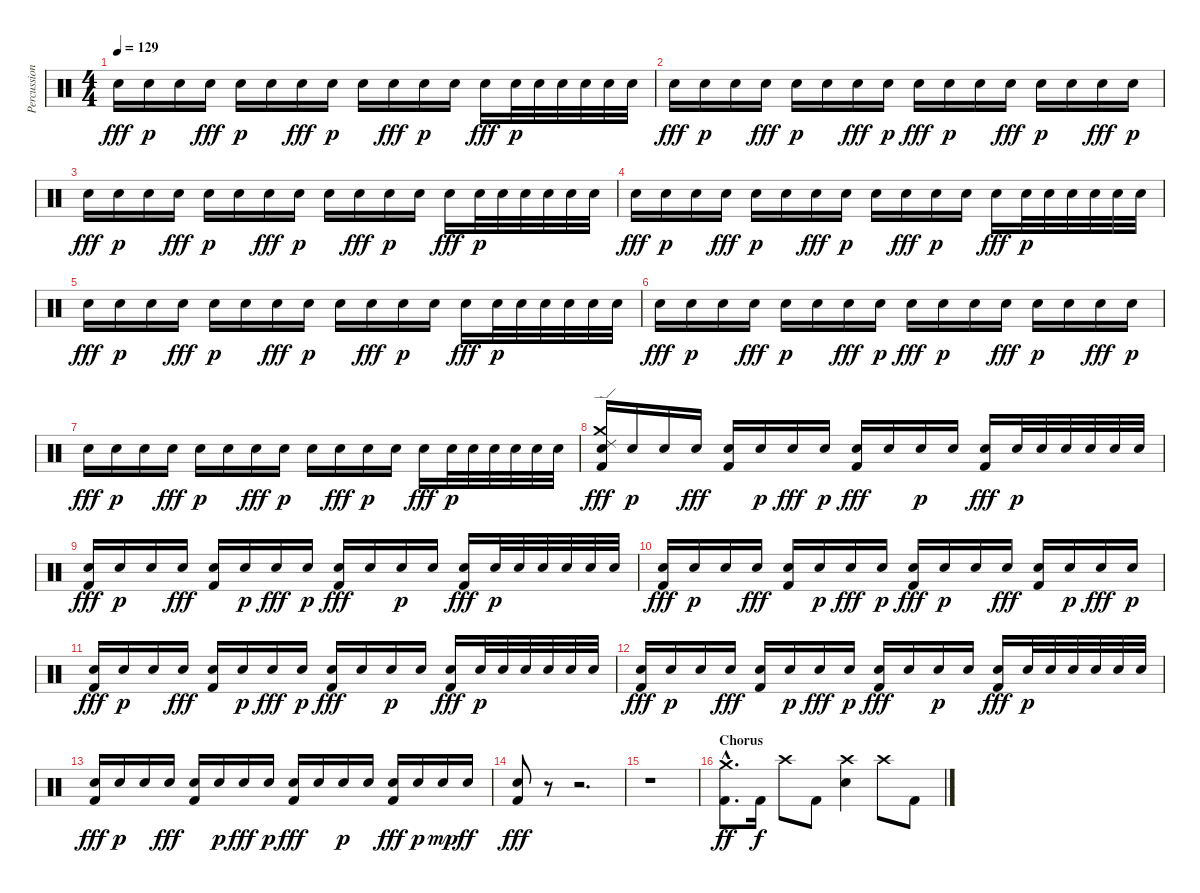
\track ("Percussions" "Percussion") {instrument percussion}
\staff {score}
\articulation defaults
\ts (4 4)
\tempo 129
\clef neutral
\ks c "Snare (hit) 2".16{dy fff} "Snare (hit) 2".16{dy p} "Snare (hit) 2".16 "Snare (hit) 2".16{dy fff} "Snare (hit) 2".16{dy p} "Snare (hit) 2".16 "Snare (hit) 2".16{dy fff} "Snare (hit) 2".16{dy p} "Snare (hit) 2".16 "Snare (hit) 2".16{dy fff} "Snare (hit) 2".16{dy p} "Snare (hit) 2".16 "Snare (hit) 2".16{dy fff} "Snare (hit) 2".32{dy p} "Snare (hit) 2".32 "Snare (hit) 2".32 "Snare (hit) 2".32 "Snare (hit) 2".32 "Snare (hit) 2".32
|
"Snare (hit) 2".16{dy fff} "Snare (hit) 2".16{dy p} "Snare (hit) 2".16 "Snare (hit) 2".16{dy fff} "Snare (hit) 2".16{dy p} "Snare (hit) 2".16 "Snare (hit) 2".16{dy fff} "Snare (hit) 2".16{dy p} "Snare (hit) 2".16{dy fff} "Snare (hit) 2".16{dy p} "Snare (hit) 2".16 "Snare (hit) 2".16{dy fff} "Snare (hit) 2".16{dy p} "Snare (hit) 2".16 "Snare (hit) 2".16{dy fff} "Snare (hit) 2".16{dy p} |
"Snare (hit) 2".16{dy fff} "Snare (hit) 2".16{dy p} "Snare (hit) 2".16 "Snare (hit) 2".16{dy fff} "Snare (hit) 2".16{dy p} "Snare (hit) 2".16 "Snare (hit) 2".16{dy fff} "Snare (hit) 2".16{dy p} "Snare (hit) 2".16 "Snare (hit) 2".16{dy fff} "Snare (hit) 2".16{dy p} "Snare (hit) 2".16 "Snare (hit) 2".16{dy fff} "Snare (hit) 2".32{dy p} "Snare (hit) 2".32 "Snare (hit) 2".32 "Snare (hit) 2".32 "Snare (hit) 2".32 "Snare (hit) 2".32 |
"Snare (hit) 2".16{dy fff} "Snare (hit) 2".16{dy p} "Snare (hit) 2".16 "Snare (hit) 2".16{dy fff} "Snare (hit) 2".16{dy p} "Snare (hit) 2".16 "Snare (hit) 2".16{dy fff} "Snare (hit) 2".16{dy p} "Snare (hit) 2".16 "Snare (hit) 2".16{dy fff} "Snare (hit) 2".16{dy p} "Snare (hit) 2".16 "Snare (hit) 2".16{dy fff} "Snare (hit) 2".32{dy p} "Snare (hit) 2".32 "Snare (hit) 2".32 "Snare (hit) 2".32 "Snare (hit) 2".32 "Snare (hit) 2".32 |
"Snare (hit) 2".16{dy fff} "Snare (hit) 2".16{dy p} "Snare (hit) 2".16 "Snare (hit) 2".16{dy fff} "Snare (hit) 2".16{dy p} "Snare (hit) 2".16 "Snare (hit) 2".16{dy fff} "Snare (hit) 2".16{dy p} "Snare (hit) 2".16 "Snare (hit) 2".16{dy fff} "Snare (hit) 2".16{dy p} "Snare (hit) 2".16 "Snare (hit) 2".16{dy fff} "Snare (hit) 2".32{dy p} "Snare (hit) 2".32 "Snare (hit) 2".32 "Snare (hit) 2".32 "Snare (hit) 2".32 "Snare (hit) 2".32 |
"Snare (hit) 2".16{dy fff} "Snare (hit) 2".16{dy p} "Snare (hit) 2".16 "Snare (hit) 2".16{dy fff} "Snare (hit) 2".16{dy p} "Snare (hit) 2".16 "Snare (hit) 2".16{dy fff} "Snare (hit) 2".16{dy p} "Snare (hit) 2".16{dy fff} "Snare (hit) 2".16{dy p} "Snare (hit) 2".16 "Snare (hit) 2".16{dy fff} "Snare (hit) 2".16{dy p} "Snare (hit) 2".16 "Snare (hit) 2".16{dy fff} "Snare (hit) 2".16{dy p} |
"Snare (hit) 2".16{dy fff} "Snare (hit) 2".16{dy p} "Snare (hit) 2".16 "Snare (hit) 2".16{dy fff} "Snare (hit) 2".16{dy p} "Snare (hit) 2".16 "Snare (hit) 2".16{dy fff} "Snare (hit) 2".16{dy p} "Snare (hit) 2".16 "Snare (hit) 2".16{dy fff} "Snare (hit) 2".16{dy p} "Snare (hit) 2".16 "Snare (hit) 2".16{dy fff} "Snare (hit) 2".32{dy p} "Snare (hit) 2".32 "Snare (hit) 2".32 "Snare (hit) 2".32 "Snare (hit) 2".32 "Snare (hit) 2".32 |
("Ride (edge) 2" "Crash medium (hit)" "Snare (hit) 2" "Kick (hit) 2").16{dy fff} "Snare (hit) 2".16{dy p} "Snare (hit) 2".16 "Snare (hit) 2".16{dy fff} ("Snare (hit) 2" "Kick (hit) 2").16 "Snare (hit) 2".16{dy p} "Snare (hit) 2".16{dy fff} "Snare (hit) 2".16{dy p} ("Snare (hit) 2" "Kick (hit) 2").16{dy fff} "Snare (hit) 2".16 "Snare (hit) 2".16{dy p} "Snare (hit) 2".16 ("Snare (hit) 2" "Kick (hit) 2").16{dy fff} "Snare (hit) 2".32{dy p} "Snare (hit) 2".32 "Snare (hit) 2".32 "Snare (hit) 2".32 "Snare (hit) 2".32 "Snare (hit) 2".32 |
("Snare (hit) 2" "Kick (hit) 2").16{dy fff} "Snare (hit) 2".16{dy p} "Snare (hit) 2".16 "Snare (hit) 2".16{dy fff} ("Snare (hit) 2" "Kick (hit) 2").16 "Snare (hit) 2".16{dy p} "Snare (hit) 2".16{dy fff} "Snare (hit) 2".16{dy p} ("Snare (hit) 2" "Kick (hit) 2").16{dy fff} "Snare (hit) 2".16 "Snare (hit) 2".16{dy p} "Snare (hit) 2".16 ("Snare (hit) 2" "Kick (hit) 2").16{dy fff} "Snare (hit) 2".32{dy p} "Snare (hit) 2".32 "Snare (hit) 2".32 "Snare (hit) 2".32 "Snare (hit) 2".32 "Snare (hit) 2".32 |
("Snare (hit) 2" "Kick (hit) 2").16{dy fff} "Snare (hit) 2".16{dy p} "Snare (hit) 2".16 "Snare (hit) 2".16{dy fff} ("Snare (hit) 2" "Kick (hit) 2").16 "Snare (hit) 2".16{dy p} "Snare (hit) 2".16{dy fff} "Snare (hit) 2".16{dy p} ("Snare (hit) 2" "Kick (hit) 2").16{dy fff} "Snare (hit) 2".16{dy p} "Snare (hit) 2".16 "Snare (hit) 2".16{dy fff} ("Snare (hit) 2" "Kick (hit) 2").16 "Snare (hit) 2".16{dy p} "Snare (hit) 2".16{dy fff} "Snare (hit) 2".16{dy p} |
("Snare (hit) 2" "Kick (hit) 2").16{dy fff} "Snare (hit) 2".16{dy p} "Snare (hit) 2".16 "Snare (hit) 2".16{dy fff} ("Snare (hit) 2" "Kick (hit) 2").16 "Snare (hit) 2".16{dy p} "Snare (hit) 2".16{dy fff} "Snare (hit) 2".16{dy p} ("Snare (hit) 2" "Kick (hit) 2").16{dy fff} "Snare (hit) 2".16 "Snare (hit) 2".16{dy p} "Snare (hit) 2".16 ("Snare (hit) 2" "Kick (hit) 2").16{dy fff} "Snare (hit) 2".32{dy p} "Snare (hit) 2".32 "Snare (hit) 2".32 "Snare (hit) 2".32 "Snare (hit) 2".32 "Snare (hit) 2".32 |
("Snare (hit) 2" "Kick (hit) 2").16{dy fff} "Snare (hit) 2".16{dy p} "Snare (hit) 2".16 "Snare (hit) 2".16{dy fff} ("Snare (hit) 2" "Kick (hit) 2").16 "Snare (hit) 2".16{dy p} "Snare (hit) 2".16{dy fff} "Snare (hit) 2".16{dy p} ("Snare (hit) 2" "Kick (hit) 2").16{dy fff} "Snare (hit) 2".16 "Snare (hit) 2".16{dy p} "Snare (hit) 2".16 ("Snare (hit) 2" "Kick (hit) 2").16{dy fff} "Snare (hit) 2".32{dy p} "Snare (hit) 2".32 "Snare (hit) 2".32 "Snare (hit) 2".32 "Snare (hit) 2".32 "Snare (hit) 2".32 |
("Snare (hit) 2" "Kick (hit) 2").16{dy fff} "Snare (hit) 2".16{dy p} "Snare (hit) 2".16 "Snare (hit) 2".16{dy fff} ("Snare (hit) 2" "Kick (hit) 2").16 "Snare (hit) 2".16{dy p} "Snare (hit) 2".16{dy fff} "Snare (hit) 2".16{dy p} ("Snare (hit) 2" "Kick (hit) 2").16{dy fff} "Snare (hit) 2".16 "Snare (hit) 2".16{dy p} "Snare (hit) 2".16 ("Snare (hit) 2" "Kick (hit) 2").16{dy fff} "Snare (hit) 2".16{dy p} "Snare (hit) 2".16{dy mp} "Snare (hit) 2".16{dy ff} |
("Snare (hit) 2" "Kick (hit) 2").8{dy fff} r.8 r.2{d} |
r.1 |
\section ("" "Chorus")
("Crash medium (hit)"{hac} "Kick (hit) 2"{hac}).8{d dy ff} "Kick (hit) 2".16{dy f} "Crash high (hit)".8 "Kick (hit) 2".8 ("Crash high (hit)" "Snare (hit) 2").4 "Crash high (hit)".8 "Kick (hit) 2".8
